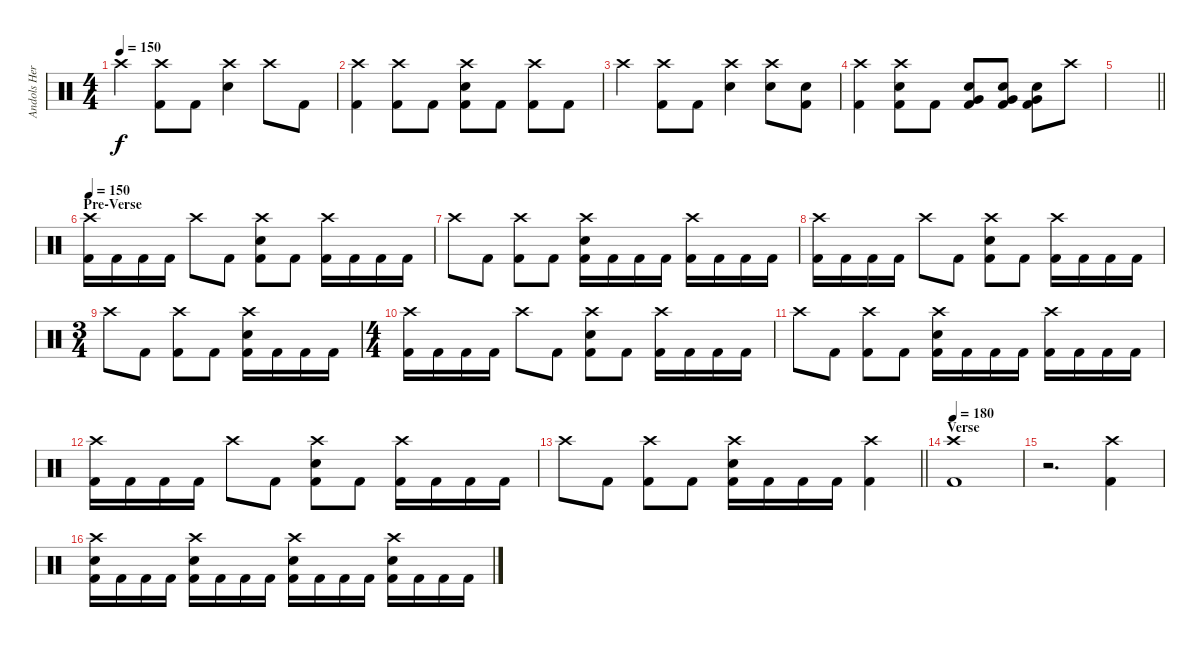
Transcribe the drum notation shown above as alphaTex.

\track ("Andols Herrick" "Andols Her") {instrument percussion}
\staff {score}
\articulation defaults
\ts (4 4)
\tempo 150
\clef neutral
\ks c "Crash high (hit)".4{dy f}
("Crash high (hit)" "Kick (hit) 2").8 "Kick (hit) 2".8 ("Crash high (hit)" "Electric Snare (hit)").4 "Crash high (hit)".8 "Kick (hit) 2".8 |
("Crash high (hit)" "Kick (hit) 2").4 ("Crash high (hit)" "Kick (hit) 2").8 "Kick (hit) 2".8 ("Crash high (hit)" "Electric Snare (hit)" "Kick (hit) 2").8 "Kick (hit) 2".8 ("Crash high (hit)" "Kick (hit) 2").8 "Kick (hit) 2".8 |
"Crash high (hit)".4 ("Crash high (hit)" "Kick (hit) 2").8 "Kick (hit) 2".8 ("Crash high (hit)" "Electric Snare (hit)").4 ("Crash high (hit)" "Electric Snare (hit)").8 ("Electric Snare (hit)" "Kick (hit) 2").8 |
("Crash high (hit)" "Kick (hit) 2").4 ("Crash high (hit)" "Electric Snare (hit)" "Kick (hit) 2").8 "Kick (hit) 2".8 ("Electric Snare (hit)" "Very Low Tom (hit)" "Kick (hit) 2").8 ("Electric Snare (hit)" "Very Low Tom (hit)" "Kick (hit) 2").8 ("Electric Snare (hit)" "Very Low Tom (hit)" "Kick (hit) 2").8 "Crash high (hit)".8 |
\barLineRight lightlight
|
\section ("" "Pre-Verse")
\tempo 150
("Crash high (hit)" "Kick (hit) 2").16 "Kick (hit) 2".16 "Kick (hit) 2".16 "Kick (hit) 2".16 "Crash high (hit)".8 "Kick (hit) 2".8 ("Crash high (hit)" "Electric Snare (hit)" "Kick (hit) 2").8 "Kick (hit) 2".8 ("Crash high (hit)" "Kick (hit) 2").16 "Kick (hit) 2".16 "Kick (hit) 2".16 "Kick (hit) 2".16 |
"Crash high (hit)".8 "Kick (hit) 2".8 ("Crash high (hit)" "Kick (hit) 2").8 "Kick (hit) 2".8 ("Crash high (hit)" "Electric Snare (hit)" "Kick (hit) 2").16 "Kick (hit) 2".16 "Kick (hit) 2".16 "Kick (hit) 2".16 ("Crash high (hit)" "Kick (hit) 2").16 "Kick (hit) 2".16 "Kick (hit) 2".16 "Kick (hit) 2".16 |
("Crash high (hit)" "Kick (hit) 2").16 "Kick (hit) 2".16 "Kick (hit) 2".16 "Kick (hit) 2".16 "Crash high (hit)".8 "Kick (hit) 2".8 ("Crash high (hit)" "Electric Snare (hit)" "Kick (hit) 2").8 "Kick (hit) 2".8 ("Crash high (hit)" "Kick (hit) 2").16 "Kick (hit) 2".16 "Kick (hit) 2".16 "Kick (hit) 2".16 |
\ts (3 4)
"Crash high (hit)".8 "Kick (hit) 2".8 ("Crash high (hit)" "Kick (hit) 2").8 "Kick (hit) 2".8 ("Crash high (hit)" "Electric Snare (hit)" "Kick (hit) 2").16 "Kick (hit) 2".16 "Kick (hit) 2".16 "Kick (hit) 2".16 |
\ts (4 4)
("Crash high (hit)" "Kick (hit) 2").16 "Kick (hit) 2".16 "Kick (hit) 2".16 "Kick (hit) 2".16 "Crash high (hit)".8 "Kick (hit) 2".8 ("Crash high (hit)" "Electric Snare (hit)" "Kick (hit) 2").8 "Kick (hit) 2".8 ("Crash high (hit)" "Kick (hit) 2").16 "Kick (hit) 2".16 "Kick (hit) 2".16 "Kick (hit) 2".16 |
"Crash high (hit)".8 "Kick (hit) 2".8 ("Crash high (hit)" "Kick (hit) 2").8 "Kick (hit) 2".8 ("Crash high (hit)" "Electric Snare (hit)" "Kick (hit) 2").16 "Kick (hit) 2".16 "Kick (hit) 2".16 "Kick (hit) 2".16 ("Crash high (hit)" "Kick (hit) 2").16 "Kick (hit) 2".16 "Kick (hit) 2".16 "Kick (hit) 2".16 |
("Crash high (hit)" "Kick (hit) 2").16 "Kick (hit) 2".16 "Kick (hit) 2".16 "Kick (hit) 2".16 "Crash high (hit)".8 "Kick (hit) 2".8 ("Crash high (hit)" "Electric Snare (hit)" "Kick (hit) 2").8 "Kick (hit) 2".8 ("Crash high (hit)" "Kick (hit) 2").16 "Kick (hit) 2".16 "Kick (hit) 2".16 "Kick (hit) 2".16 |
\barLineRight lightlight "Crash high (hit)".8 "Kick (hit) 2".8
("Crash high (hit)" "Kick (hit) 2").8 "Kick (hit) 2".8 ("Crash high (hit)" "Electric Snare (hit)" "Kick (hit) 2").16 "Kick (hit) 2".16 "Kick (hit) 2".16 "Kick (hit) 2".16 ("Crash high (hit)" "Kick (hit) 2").4 |
\section ("" "Verse")
\tempo 180
("Crash high (hit)" "Kick (hit) 2").1 |
r.2{d} ("Crash high (hit)" "Kick (hit) 2").4 |
("Crash high (hit)" "Electric Snare (hit)" "Kick (hit) 2").16 "Kick (hit) 2".16 "Kick (hit) 2".16 "Kick (hit) 2".16 ("Crash high (hit)" "Electric Snare (hit)" "Kick (hit) 2").16 "Kick (hit) 2".16 "Kick (hit) 2".16 "Kick (hit) 2".16 ("Crash high (hit)" "Electric Snare (hit)" "Kick (hit) 2").16 "Kick (hit) 2".16 "Kick (hit) 2".16 "Kick (hit) 2".16 ("Crash high (hit)" "Electric Snare (hit)" "Kick (hit) 2").16 "Kick (hit) 2".16 "Kick (hit) 2".16 "Kick (hit) 2".16
